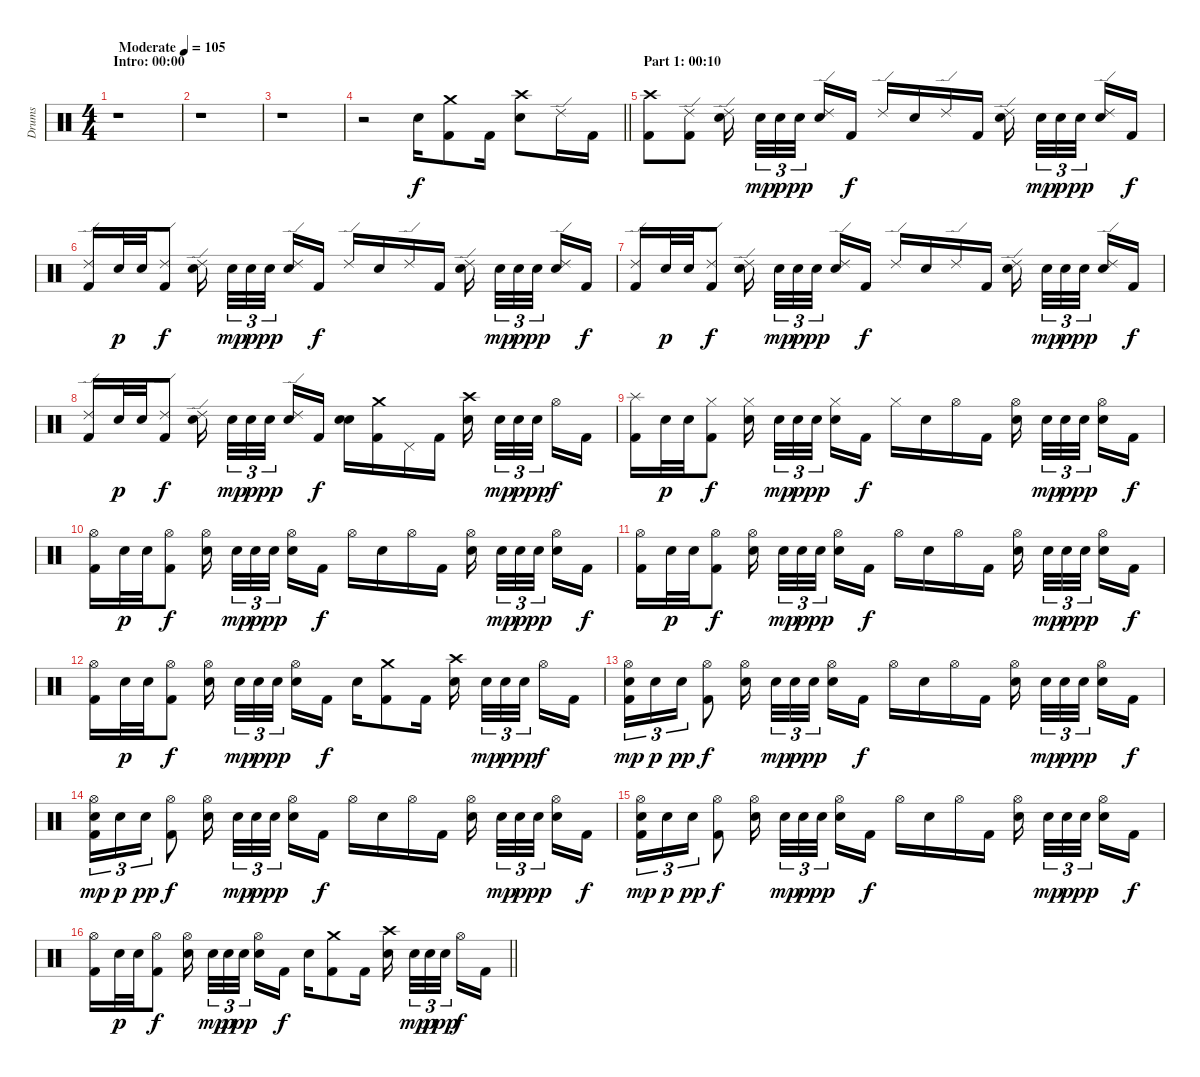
\track ("Drums" "Drums") {instrument percussion}
\staff {score}
\articulation defaults
\ts (4 4)
\section ("" "Intro: 00:00")
\tempo (105 "Moderate")
\clef neutral
\ks c
r.1{dy f} |
r.1 |
r.1 |
\barLineRight lightlight
r.2 "Electric Snare (hit)".16 ("Crash medium (hit)" "Kick (hit) 2").8 "Kick (hit) 2".16 ("Crash high (hit)" "Electric Snare (hit)").8 "Ride (edge) 2".16 "Kick (hit) 2".16 |
\section ("" "Part 1: 00:10")
("Crash high (hit)" "Kick (hit) 2").8 ("Ride (edge) 2" "Kick (hit) 2").8 ("Ride (edge) 2" "Electric Snare (hit)").16{beam splitsecondary} "Electric Snare (hit)".32{tu (3 2) dy mp} "Electric Snare (hit)".32{tu (3 2) dy p} "Electric Snare (hit)".32{tu (3 2) dy pp beam splitsecondary} ("Ride (edge) 2" "Electric Snare (hit)").16 "Kick (hit) 2".16{dy f} "Ride (edge) 2".16 "Electric Snare (hit)".16 "Ride (edge) 2".16 "Kick (hit) 2".16 ("Ride (edge) 2" "Electric Snare (hit)").16{beam splitsecondary} "Electric Snare (hit)".32{tu (3 2) dy mp} "Electric Snare (hit)".32{tu (3 2) dy p} "Electric Snare (hit)".32{tu (3 2) dy pp beam splitsecondary} ("Ride (edge) 2" "Electric Snare (hit)").16 "Kick (hit) 2".16{dy f} |
("Ride (edge) 2" "Kick (hit) 2").16 "Electric Snare (hit)".32{dy p} "Electric Snare (hit)".32 ("Ride (edge) 2" "Kick (hit) 2").8{dy f} ("Ride (edge) 2" "Electric Snare (hit)").16{beam splitsecondary} "Electric Snare (hit)".32{tu (3 2) dy mp} "Electric Snare (hit)".32{tu (3 2) dy p} "Electric Snare (hit)".32{tu (3 2) dy pp beam splitsecondary} ("Ride (edge) 2" "Electric Snare (hit)").16 "Kick (hit) 2".16{dy f} "Ride (edge) 2".16 "Electric Snare (hit)".16 "Ride (edge) 2".16 "Kick (hit) 2".16 ("Ride (edge) 2" "Electric Snare (hit)").16{beam splitsecondary} "Electric Snare (hit)".32{tu (3 2) dy mp} "Electric Snare (hit)".32{tu (3 2) dy p} "Electric Snare (hit)".32{tu (3 2) dy pp beam splitsecondary} ("Ride (edge) 2" "Electric Snare (hit)").16 "Kick (hit) 2".16{dy f} |
("Ride (edge) 2" "Kick (hit) 2").16 "Electric Snare (hit)".32{dy p} "Electric Snare (hit)".32 ("Ride (edge) 2" "Kick (hit) 2").8{dy f} ("Ride (edge) 2" "Electric Snare (hit)").16{beam splitsecondary} "Electric Snare (hit)".32{tu (3 2) dy mp} "Electric Snare (hit)".32{tu (3 2) dy p} "Electric Snare (hit)".32{tu (3 2) dy pp beam splitsecondary} ("Ride (edge) 2" "Electric Snare (hit)").16 "Kick (hit) 2".16{dy f} "Ride (edge) 2".16 "Electric Snare (hit)".16 "Ride (edge) 2".16 "Kick (hit) 2".16 ("Ride (edge) 2" "Electric Snare (hit)").16{beam splitsecondary} "Electric Snare (hit)".32{tu (3 2) dy mp} "Electric Snare (hit)".32{tu (3 2) dy p} "Electric Snare (hit)".32{tu (3 2) dy pp beam splitsecondary} ("Ride (edge) 2" "Electric Snare (hit)").16 "Kick (hit) 2".16{dy f} |
("Ride (edge) 2" "Kick (hit) 2").16 "Electric Snare (hit)".32{dy p} "Electric Snare (hit)".32 ("Ride (edge) 2" "Kick (hit) 2").8{dy f} ("Ride (edge) 2" "Electric Snare (hit)").16{beam splitsecondary} "Electric Snare (hit)".32{tu (3 2) dy mp} "Electric Snare (hit)".32{tu (3 2) dy p} "Electric Snare (hit)".32{tu (3 2) dy pp beam splitsecondary} ("Ride (edge) 2" "Electric Snare (hit)").16 "Kick (hit) 2".16{dy f} ("Electric Snare (hit)" "Electric Snare (hit)").16{bu 60} ("Crash medium (hit)" "Kick (hit) 2").16 "Pedal Hi-Hat (hit)".16 "Kick (hit) 2".16 ("Crash high (hit)" "Electric Snare (hit)").16{beam splitsecondary} "Electric Snare (hit)".32{tu (3 2) dy mp} "Electric Snare (hit)".32{tu (3 2) dy p} "Electric Snare (hit)".32{tu (3 2) dy pp beam splitsecondary} "Hi-Hat (open)".16{dy f} "Kick (hit) 2".16 |
("Splash (hit)" "Kick (hit) 2").16 "Electric Snare (hit)".32{dy p} "Electric Snare (hit)".32 ("Hi-Hat (closed)" "Kick (hit) 2").8{dy f} ("Hi-Hat (closed)" "Electric Snare (hit)").16{beam splitsecondary} "Electric Snare (hit)".32{tu (3 2) dy mp} "Electric Snare (hit)".32{tu (3 2) dy p} "Electric Snare (hit)".32{tu (3 2) dy pp beam splitsecondary} ("Hi-Hat (closed)" "Electric Snare (hit)").16 "Kick (hit) 2".16{dy f} "Hi-Hat (closed)".16 "Electric Snare (hit)".16 "Hi-Hat (open)".16 "Kick (hit) 2".16 ("Hi-Hat (open)" "Electric Snare (hit)").16{beam splitsecondary} "Electric Snare (hit)".32{tu (3 2) dy mp} "Electric Snare (hit)".32{tu (3 2) dy p} "Electric Snare (hit)".32{tu (3 2) dy pp beam splitsecondary} ("Hi-Hat (open)" "Electric Snare (hit)").16 "Kick (hit) 2".16{dy f} |
("Hi-Hat (open)" "Kick (hit) 2").16 "Electric Snare (hit)".32{dy p} "Electric Snare (hit)".32 ("Hi-Hat (open)" "Kick (hit) 2").8{dy f} ("Hi-Hat (open)" "Electric Snare (hit)").16{beam splitsecondary} "Electric Snare (hit)".32{tu (3 2) dy mp} "Electric Snare (hit)".32{tu (3 2) dy p} "Electric Snare (hit)".32{tu (3 2) dy pp beam splitsecondary} ("Hi-Hat (open)" "Electric Snare (hit)").16 "Kick (hit) 2".16{dy f} "Hi-Hat (open)".16 "Electric Snare (hit)".16 "Hi-Hat (open)".16 "Kick (hit) 2".16 ("Hi-Hat (open)" "Electric Snare (hit)").16{beam splitsecondary} "Electric Snare (hit)".32{tu (3 2) dy mp} "Electric Snare (hit)".32{tu (3 2) dy p} "Electric Snare (hit)".32{tu (3 2) dy pp beam splitsecondary} ("Hi-Hat (open)" "Electric Snare (hit)").16 "Kick (hit) 2".16{dy f} |
("Hi-Hat (open)" "Kick (hit) 2").16 "Electric Snare (hit)".32{dy p} "Electric Snare (hit)".32 ("Hi-Hat (open)" "Kick (hit) 2").8{dy f} ("Hi-Hat (open)" "Electric Snare (hit)").16{beam splitsecondary} "Electric Snare (hit)".32{tu (3 2) dy mp} "Electric Snare (hit)".32{tu (3 2) dy p} "Electric Snare (hit)".32{tu (3 2) dy pp beam splitsecondary} ("Hi-Hat (open)" "Electric Snare (hit)").16 "Kick (hit) 2".16{dy f} "Hi-Hat (open)".16 "Electric Snare (hit)".16 "Hi-Hat (open)".16 "Kick (hit) 2".16 ("Hi-Hat (open)" "Electric Snare (hit)").16{beam splitsecondary} "Electric Snare (hit)".32{tu (3 2) dy mp} "Electric Snare (hit)".32{tu (3 2) dy p} "Electric Snare (hit)".32{tu (3 2) dy pp beam splitsecondary} ("Hi-Hat (open)" "Electric Snare (hit)").16 "Kick (hit) 2".16{dy f} |
("Hi-Hat (open)" "Kick (hit) 2").16 "Electric Snare (hit)".32{dy p} "Electric Snare (hit)".32 ("Hi-Hat (open)" "Kick (hit) 2").8{dy f} ("Hi-Hat (open)" "Electric Snare (hit)").16{beam splitsecondary} "Electric Snare (hit)".32{tu (3 2) dy mp} "Electric Snare (hit)".32{tu (3 2) dy p} "Electric Snare (hit)".32{tu (3 2) dy pp beam splitsecondary} ("Hi-Hat (open)" "Electric Snare (hit)").16 "Kick (hit) 2".16{dy f} "Electric Snare (hit)".16 ("Crash medium (hit)" "Kick (hit) 2").8 "Kick (hit) 2".16 ("Crash high (hit)" "Electric Snare (hit)").16{beam splitsecondary} "Electric Snare (hit)".32{tu (3 2) dy mp} "Electric Snare (hit)".32{tu (3 2) dy p} "Electric Snare (hit)".32{tu (3 2) dy pp beam splitsecondary} "Hi-Hat (open)".16{dy f} "Kick (hit) 2".16 |
("Hi-Hat (open)" "Electric Snare (hit)" "Kick (hit) 2").16{tu (3 2) dy mp} "Electric Snare (hit)".16{tu (3 2) dy p} "Electric Snare (hit)".16{tu (3 2) dy pp} ("Hi-Hat (open)" "Kick (hit) 2").8{dy f} ("Hi-Hat (open)" "Electric Snare (hit)").16{beam splitsecondary} "Electric Snare (hit)".32{tu (3 2) dy mp} "Electric Snare (hit)".32{tu (3 2) dy p} "Electric Snare (hit)".32{tu (3 2) dy pp beam splitsecondary} ("Hi-Hat (open)" "Electric Snare (hit)").16 "Kick (hit) 2".16{dy f} "Hi-Hat (open)".16 "Electric Snare (hit)".16 "Hi-Hat (open)".16 "Kick (hit) 2".16 ("Hi-Hat (open)" "Electric Snare (hit)").16{beam splitsecondary} "Electric Snare (hit)".32{tu (3 2) dy mp} "Electric Snare (hit)".32{tu (3 2) dy p} "Electric Snare (hit)".32{tu (3 2) dy pp beam splitsecondary} ("Hi-Hat (open)" "Electric Snare (hit)").16 "Kick (hit) 2".16{dy f} |
("Hi-Hat (open)" "Electric Snare (hit)" "Kick (hit) 2").16{tu (3 2) dy mp} "Electric Snare (hit)".16{tu (3 2) dy p} "Electric Snare (hit)".16{tu (3 2) dy pp} ("Hi-Hat (open)" "Kick (hit) 2").8{dy f} ("Hi-Hat (open)" "Electric Snare (hit)").16{beam splitsecondary} "Electric Snare (hit)".32{tu (3 2) dy mp} "Electric Snare (hit)".32{tu (3 2) dy p} "Electric Snare (hit)".32{tu (3 2) dy pp beam splitsecondary} ("Hi-Hat (open)" "Electric Snare (hit)").16 "Kick (hit) 2".16{dy f} "Hi-Hat (open)".16 "Electric Snare (hit)".16 "Hi-Hat (open)".16 "Kick (hit) 2".16 ("Hi-Hat (open)" "Electric Snare (hit)").16{beam splitsecondary} "Electric Snare (hit)".32{tu (3 2) dy mp} "Electric Snare (hit)".32{tu (3 2) dy p} "Electric Snare (hit)".32{tu (3 2) dy pp beam splitsecondary} ("Hi-Hat (open)" "Electric Snare (hit)").16 "Kick (hit) 2".16{dy f} |
("Hi-Hat (open)" "Electric Snare (hit)" "Kick (hit) 2").16{tu (3 2) dy mp} "Electric Snare (hit)".16{tu (3 2) dy p} "Electric Snare (hit)".16{tu (3 2) dy pp} ("Hi-Hat (open)" "Kick (hit) 2").8{dy f} ("Hi-Hat (open)" "Electric Snare (hit)").16{beam splitsecondary} "Electric Snare (hit)".32{tu (3 2) dy mp} "Electric Snare (hit)".32{tu (3 2) dy p} "Electric Snare (hit)".32{tu (3 2) dy pp beam splitsecondary} ("Hi-Hat (open)" "Electric Snare (hit)").16 "Kick (hit) 2".16{dy f} "Hi-Hat (open)".16 "Electric Snare (hit)".16 "Hi-Hat (open)".16 "Kick (hit) 2".16 ("Hi-Hat (open)" "Electric Snare (hit)").16{beam splitsecondary} "Electric Snare (hit)".32{tu (3 2) dy mp} "Electric Snare (hit)".32{tu (3 2) dy p} "Electric Snare (hit)".32{tu (3 2) dy pp beam splitsecondary} ("Hi-Hat (open)" "Electric Snare (hit)").16 "Kick (hit) 2".16{dy f} |
\barLineRight lightlight
("Hi-Hat (open)" "Kick (hit) 2").16 "Electric Snare (hit)".32{dy p} "Electric Snare (hit)".32 ("Hi-Hat (open)" "Kick (hit) 2").8{dy f} ("Hi-Hat (open)" "Electric Snare (hit)").16{beam splitsecondary} "Electric Snare (hit)".32{tu (3 2) dy mp} "Electric Snare (hit)".32{tu (3 2) dy p} "Electric Snare (hit)".32{tu (3 2) dy pp beam splitsecondary} ("Hi-Hat (open)" "Electric Snare (hit)").16 "Kick (hit) 2".16{dy f} "Electric Snare (hit)".16 ("Crash medium (hit)" "Kick (hit) 2").8 "Kick (hit) 2".16 ("Crash high (hit)" "Electric Snare (hit)").16{beam splitsecondary} "Electric Snare (hit)".32{tu (3 2) dy mp} "Electric Snare (hit)".32{tu (3 2) dy p} "Electric Snare (hit)".32{tu (3 2) dy pp beam splitsecondary} "Hi-Hat (open)".16{dy f} "Kick (hit) 2".16
